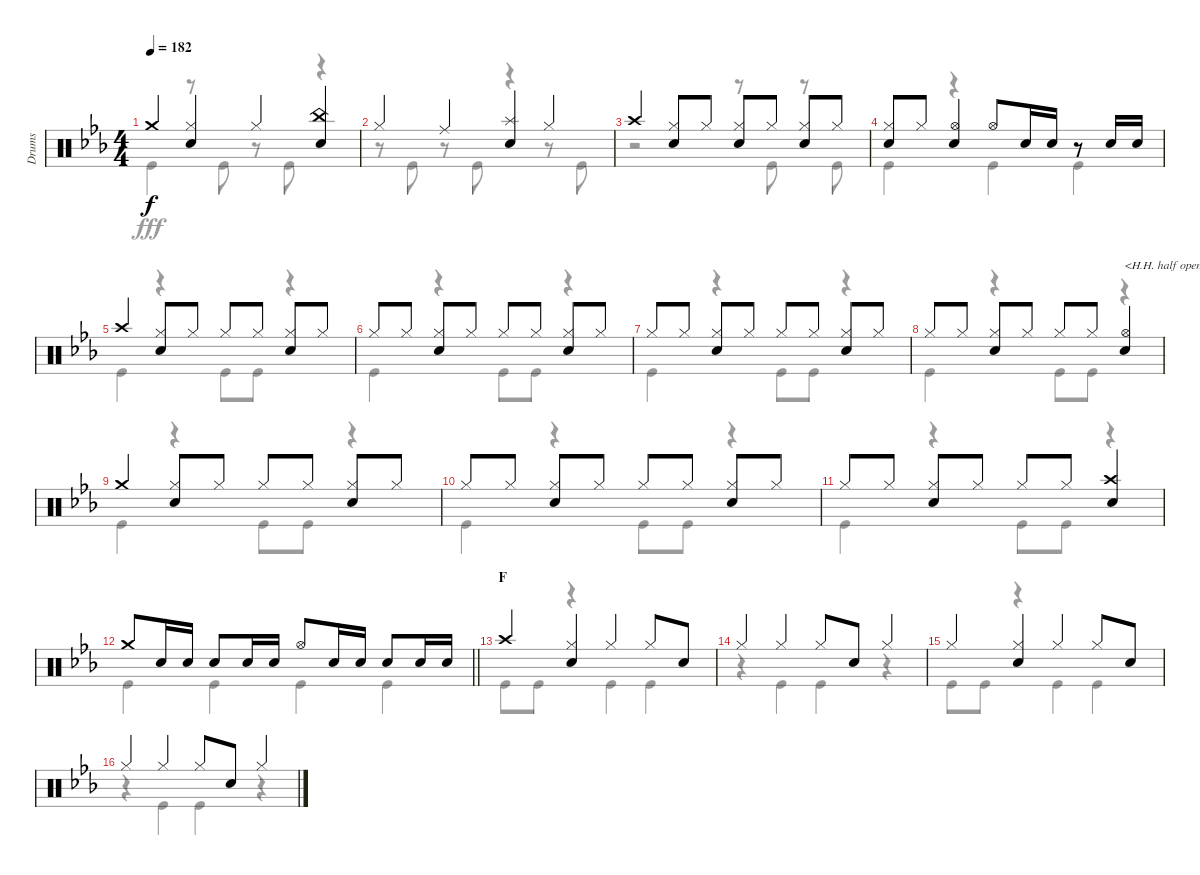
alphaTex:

\track ("Drums" "Drums") {instrument percussion}
\staff {score}
\articulation defaults
\voice
\ts (4 4)
\tempo 182
\clef neutral
\ks eb "Crash medium (hit)".4{dy f}
("Hi-Hat (closed)" "Snare (hit) 2").4 "Hi-Hat (closed)".4 ("China (hit)" "Snare (hit) 2").4 |
"Hi-Hat (closed)".4 "Ride (middle)".4 ("Splash (hit)" "Snare (hit) 2").4 "Hi-Hat (closed)".4 |
"Crash high (hit)".4 ("Hi-Hat (closed)" "Snare (hit) 2").8 "Hi-Hat (closed)".8 ("Hi-Hat (closed)" "Snare (hit) 2").8 "Hi-Hat (closed)".8 ("Hi-Hat (closed)" "Snare (hit) 2").8 "Hi-Hat (closed)".8 |
("Hi-Hat (closed)" "Snare (hit) 2").8 "Hi-Hat (closed)".8 ("Hi-Hat (open)" "Snare (hit) 2").4 "Hi-Hat (open)".8 "Snare (hit) 2".16 "Snare (hit) 2".16 r.8 "Snare (hit) 2".16 "Snare (hit) 2".16 |
"Crash high (hit)".4 ("Hi-Hat (closed)" "Snare (hit) 2").8 "Hi-Hat (closed)".8 "Hi-Hat (closed)".8 "Hi-Hat (closed)".8 ("Hi-Hat (closed)" "Snare (hit) 2").8 "Hi-Hat (closed)".8 |
"Hi-Hat (closed)".8 "Hi-Hat (closed)".8 ("Hi-Hat (closed)" "Snare (hit) 2").8 "Hi-Hat (closed)".8 "Hi-Hat (closed)".8 "Hi-Hat (closed)".8 ("Hi-Hat (closed)" "Snare (hit) 2").8 "Hi-Hat (closed)".8 |
"Hi-Hat (closed)".8 "Hi-Hat (closed)".8 ("Hi-Hat (closed)" "Snare (hit) 2").8 "Hi-Hat (closed)".8 "Hi-Hat (closed)".8 "Hi-Hat (closed)".8 ("Hi-Hat (closed)" "Snare (hit) 2").8 "Hi-Hat (closed)".8 |
"Hi-Hat (closed)".8 "Hi-Hat (closed)".8 ("Hi-Hat (closed)" "Snare (hit) 2").8 "Hi-Hat (closed)".8 "Hi-Hat (closed)".8 "Hi-Hat (closed)".8 ("Hi-Hat (open)" "Snare (hit) 2").4{txt "<H.H. half open>"} |
"Crash medium (hit)".4 ("Hi-Hat (closed)" "Snare (hit) 2").8 "Hi-Hat (closed)".8 "Hi-Hat (closed)".8 "Hi-Hat (closed)".8 ("Hi-Hat (closed)" "Snare (hit) 2").8 "Hi-Hat (closed)".8 |
"Hi-Hat (closed)".8 "Hi-Hat (closed)".8 ("Hi-Hat (closed)" "Snare (hit) 2").8 "Hi-Hat (closed)".8 "Hi-Hat (closed)".8 "Hi-Hat (closed)".8 ("Hi-Hat (closed)" "Snare (hit) 2").8 "Hi-Hat (closed)".8 |
"Hi-Hat (closed)".8 "Hi-Hat (closed)".8 ("Hi-Hat (closed)" "Snare (hit) 2").8 "Hi-Hat (closed)".8 "Hi-Hat (closed)".8 "Hi-Hat (closed)".8 ("Crash high (hit)" "Snare (hit) 2").4 |
\barLineRight lightlight "Crash medium (hit)".8 "Snare (hit) 2".16 "Snare (hit) 2".16 "Snare (hit) 2".8 "Snare (hit) 2".16 "Snare (hit) 2".16 "Hi-Hat (open)".8 "Snare (hit) 2".16 "Snare (hit) 2".16 "Snare (hit) 2".8 "Snare (hit) 2".16 "Snare (hit) 2".16
|
\section ("" "F")
"Crash high (hit)".4 ("Hi-Hat (closed)" "Snare (hit) 2").4 "Hi-Hat (closed)".4 "Hi-Hat (closed)".8 "Snare (hit) 2".8 |
"Hi-Hat (closed)".4 "Hi-Hat (closed)".4 "Hi-Hat (closed)".8 "Snare (hit) 2".8 "Hi-Hat (closed)".4 |
"Hi-Hat (closed)".4 ("Hi-Hat (closed)" "Snare (hit) 2").4 "Hi-Hat (closed)".4 "Hi-Hat (closed)".8 "Snare (hit) 2".8 |
"Hi-Hat (closed)".4 "Hi-Hat (closed)".4 "Hi-Hat (closed)".8 "Snare (hit) 2".8 "Hi-Hat (closed)".4
\voice
\clef neutral
\ottava regular
\simile none
\ks eb "Kick (hit)".4{dy fff}
r.8 "Kick (hit)".8 r.8 "Kick (hit)".8 r.4 |
r.8 "Kick (hit)".8 r.8 "Kick (hit)".8 r.4 r.8 "Kick (hit)".8 |
r.2 r.8 "Kick (hit)".8 r.8 "Kick (hit)".8 |
"Kick (hit)".4 r.4 "Kick (hit)".4 "Kick (hit)".4 |
"Kick (hit)".4 r.4 "Kick (hit)".8 "Kick (hit)".8 r.4 |
"Kick (hit)".4 r.4 "Kick (hit)".8 "Kick (hit)".8 r.4 |
"Kick (hit)".4 r.4 "Kick (hit)".8 "Kick (hit)".8 r.4 |
"Kick (hit)".4 r.4 "Kick (hit)".8 "Kick (hit)".8 r.4 |
"Kick (hit)".4 r.4 "Kick (hit)".8 "Kick (hit)".8 r.4 |
"Kick (hit)".4 r.4 "Kick (hit)".8 "Kick (hit)".8 r.4 |
"Kick (hit)".4 r.4 "Kick (hit)".8 "Kick (hit)".8 r.4 |
\barLineRight lightlight "Kick (hit)".4 "Kick (hit)".4 "Kick (hit)".4 "Kick (hit)".4
|
"Kick (hit)".8 "Kick (hit)".8 r.4 "Kick (hit)".4 "Kick (hit)".4 |
r.4 "Kick (hit)".4 "Kick (hit)".4 r.4 |
"Kick (hit)".8 "Kick (hit)".8 r.4 "Kick (hit)".4 "Kick (hit)".4 |
r.4 "Kick (hit)".4 "Kick (hit)".4 r.4
